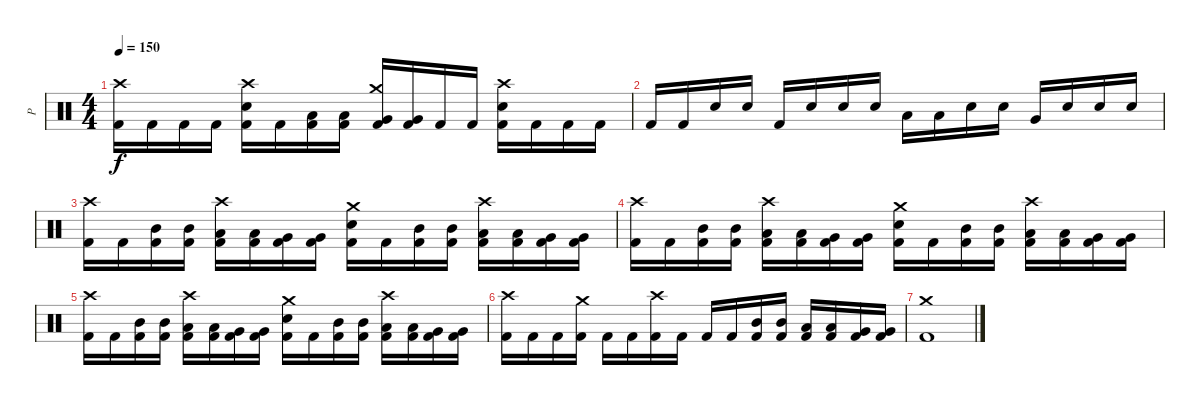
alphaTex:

\track ("P" "P") {instrument percussion}
\staff {score}
\articulation defaults
\ts (4 4)
\tempo 150
\clef neutral
\ks c
("Crash high (hit)" "Kick (hit) 2").16{dy f} "Kick (hit) 2".16 "Kick (hit) 2".16 "Kick (hit) 2".16 ("Crash high (hit)" "Electric Snare (hit)" "Kick (hit) 2").16 "Kick (hit) 2".16 ("Low Tom (hit)" "Kick (hit) 2").16 ("Low Tom (hit)" "Kick (hit) 2").16 ("Crash medium (hit)" "Very Low Tom (hit)" "Kick (hit) 2").16 ("Very Low Tom (hit)" "Kick (hit) 2").16 "Kick (hit) 2".16 "Kick (hit) 2".16 ("Crash high (hit)" "Electric Snare (hit)" "Kick (hit) 2").16 "Kick (hit) 2".16 "Kick (hit) 2".16 "Kick (hit) 2".16 |
"Kick (hit) 2".16 "Kick (hit) 2".16 "Electric Snare (hit)".16 "Electric Snare (hit)".16 "Kick (hit) 2".16 "Electric Snare (hit)".16 "Electric Snare (hit)".16 "Electric Snare (hit)".16 "Low Tom (hit)".16 "Low Tom (hit)".16 "Electric Snare (hit)".16 "Electric Snare (hit)".16 "Very Low Tom (hit)".16 "Electric Snare (hit)".16 "Electric Snare (hit)".16 "Electric Snare (hit)".16 |
("Crash high (hit)" "Kick (hit) 2").16 "Kick (hit) 2".16 ("Mid Tom (hit)" "Kick (hit) 2").16 ("Mid Tom (hit)" "Kick (hit) 2").16 ("Crash high (hit)" "Low Tom (hit)" "Kick (hit) 2").16 ("Low Tom (hit)" "Kick (hit) 2").16 ("Very Low Tom (hit)" "Kick (hit) 2").16 ("Very Low Tom (hit)" "Kick (hit) 2").16 ("Crash medium (hit)" "Electric Snare (hit)" "Kick (hit) 2").16 "Kick (hit) 2".16 ("Mid Tom (hit)" "Kick (hit) 2").16 ("Mid Tom (hit)" "Kick (hit) 2").16 ("Crash high (hit)" "Low Tom (hit)" "Kick (hit) 2").16 ("Low Tom (hit)" "Kick (hit) 2").16 ("Very Low Tom (hit)" "Kick (hit) 2").16 ("Very Low Tom (hit)" "Kick (hit) 2").16 |
("Crash high (hit)" "Kick (hit) 2").16 "Kick (hit) 2".16 ("Mid Tom (hit)" "Kick (hit) 2").16 ("Mid Tom (hit)" "Kick (hit) 2").16 ("Crash high (hit)" "Low Tom (hit)" "Kick (hit) 2").16 ("Low Tom (hit)" "Kick (hit) 2").16 ("Very Low Tom (hit)" "Kick (hit) 2").16 ("Very Low Tom (hit)" "Kick (hit) 2").16 ("Crash medium (hit)" "Electric Snare (hit)" "Kick (hit) 2").16 "Kick (hit) 2".16 ("Mid Tom (hit)" "Kick (hit) 2").16 ("Mid Tom (hit)" "Kick (hit) 2").16 ("Crash high (hit)" "Low Tom (hit)" "Kick (hit) 2").16 ("Low Tom (hit)" "Kick (hit) 2").16 ("Very Low Tom (hit)" "Kick (hit) 2").16 ("Very Low Tom (hit)" "Kick (hit) 2").16 |
("Crash high (hit)" "Kick (hit) 2").16 "Kick (hit) 2".16 ("Mid Tom (hit)" "Kick (hit) 2").16 ("Mid Tom (hit)" "Kick (hit) 2").16 ("Crash high (hit)" "Low Tom (hit)" "Kick (hit) 2").16 ("Low Tom (hit)" "Kick (hit) 2").16 ("Very Low Tom (hit)" "Kick (hit) 2").16 ("Very Low Tom (hit)" "Kick (hit) 2").16 ("Crash medium (hit)" "Electric Snare (hit)" "Kick (hit) 2").16 "Kick (hit) 2".16 ("Mid Tom (hit)" "Kick (hit) 2").16 ("Mid Tom (hit)" "Kick (hit) 2").16 ("Crash high (hit)" "Low Tom (hit)" "Kick (hit) 2").16 ("Low Tom (hit)" "Kick (hit) 2").16 ("Very Low Tom (hit)" "Kick (hit) 2").16 ("Very Low Tom (hit)" "Kick (hit) 2").16 |
("Crash high (hit)" "Kick (hit) 2").16 "Kick (hit) 2".16 "Kick (hit) 2".16 ("Crash medium (hit)" "Kick (hit) 2").16 "Kick (hit) 2".16 "Kick (hit) 2".16 ("Crash high (hit)" "Kick (hit) 2").16 "Kick (hit) 2".16 "Kick (hit) 2".16 "Kick (hit) 2".16 ("Mid Tom (hit)" "Kick (hit) 2").16 ("Mid Tom (hit)" "Kick (hit) 2").16 ("Low Tom (hit)" "Kick (hit) 2").16 ("Low Tom (hit)" "Kick (hit) 2").16 ("Very Low Tom (hit)" "Kick (hit) 2").16 ("Very Low Tom (hit)" "Kick (hit) 2").16 |
("Crash medium (hit)" "Kick (hit) 2").1
